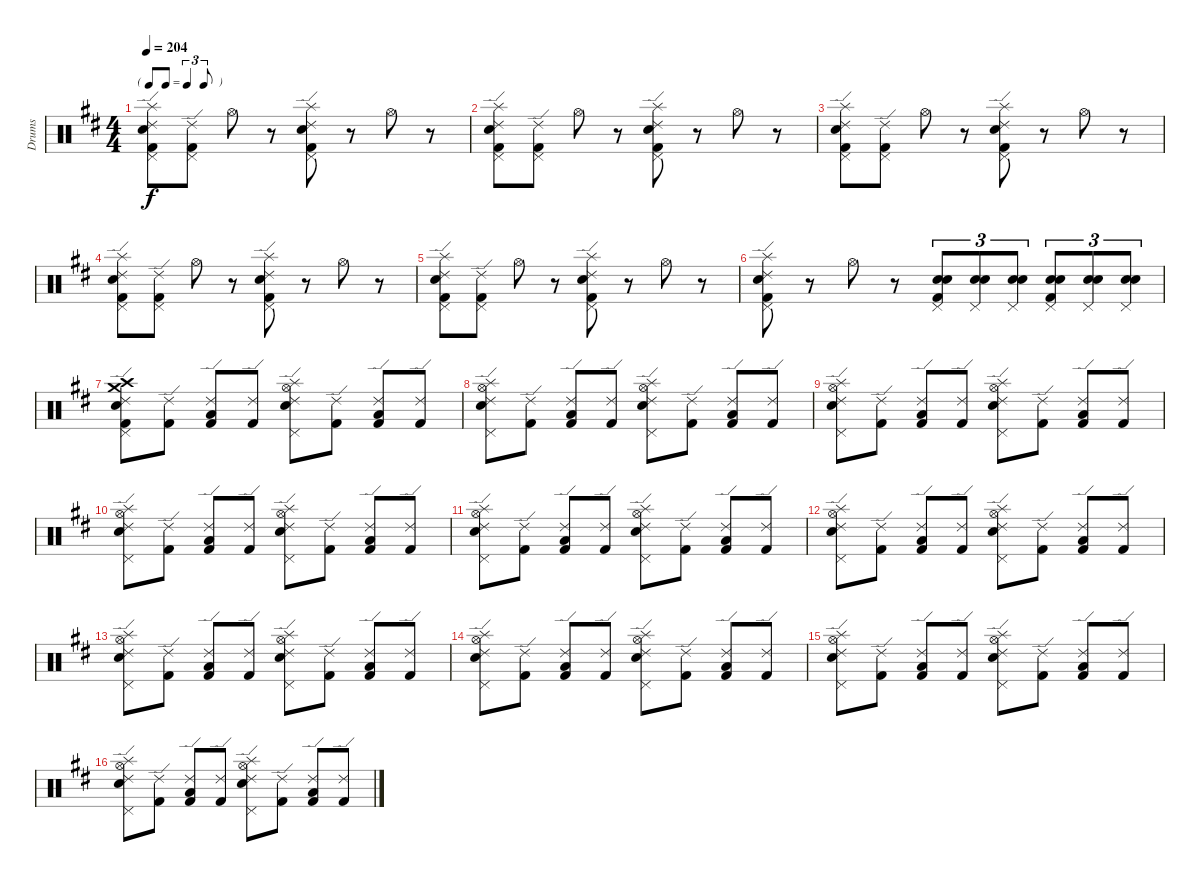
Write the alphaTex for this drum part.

\track ("Drums" "Drums") {instrument percussion}
\staff {score}
\articulation defaults
\ts (4 4)
\tf triplet8th
\tempo 204
\clef neutral
\ks d
("Splash (hit)" "Kick (hit) 2" "Snare (hit) 2" "Ride (edge) 2" "Pedal Hi-Hat (hit)").8{dy f} ("Pedal Hi-Hat (hit)" "Kick (hit) 2" "Ride (edge) 2").8 "Hi-Hat (open)".8 r.8 ("Splash (hit)" "Kick (hit) 2" "Snare (hit) 2" "Ride (edge) 2" "Pedal Hi-Hat (hit)").8 r.8 "Hi-Hat (open)".8 r.8 |
("Splash (hit)" "Kick (hit) 2" "Snare (hit) 2" "Ride (edge) 2" "Pedal Hi-Hat (hit)").8 ("Pedal Hi-Hat (hit)" "Kick (hit) 2" "Ride (edge) 2").8 "Hi-Hat (open)".8 r.8 ("Splash (hit)" "Kick (hit) 2" "Snare (hit) 2" "Ride (edge) 2" "Pedal Hi-Hat (hit)").8 r.8 "Hi-Hat (open)".8 r.8 |
("Splash (hit)" "Kick (hit) 2" "Snare (hit) 2" "Ride (edge) 2" "Pedal Hi-Hat (hit)").8 ("Pedal Hi-Hat (hit)" "Kick (hit) 2" "Ride (edge) 2").8 "Hi-Hat (open)".8 r.8 ("Splash (hit)" "Kick (hit) 2" "Snare (hit) 2" "Ride (edge) 2" "Pedal Hi-Hat (hit)").8 r.8 "Hi-Hat (open)".8 r.8 |
("Splash (hit)" "Kick (hit) 2" "Snare (hit) 2" "Ride (edge) 2" "Pedal Hi-Hat (hit)").8 ("Pedal Hi-Hat (hit)" "Kick (hit) 2" "Ride (edge) 2").8 "Hi-Hat (open)".8 r.8 ("Splash (hit)" "Kick (hit) 2" "Snare (hit) 2" "Ride (edge) 2" "Pedal Hi-Hat (hit)").8 r.8 "Hi-Hat (open)".8 r.8 |
("Splash (hit)" "Kick (hit) 2" "Snare (hit) 2" "Ride (edge) 2" "Pedal Hi-Hat (hit)").8 ("Pedal Hi-Hat (hit)" "Kick (hit) 2" "Ride (edge) 2").8 "Hi-Hat (open)".8 r.8 ("Splash (hit)" "Kick (hit) 2" "Snare (hit) 2" "Ride (edge) 2" "Pedal Hi-Hat (hit)").8 r.8 "Hi-Hat (open)".8 r.8 |
("Splash (hit)" "Kick (hit) 2" "Snare (hit) 2" "Ride (edge) 2" "Pedal Hi-Hat (hit)").8 r.8 "Hi-Hat (open)".8 r.8 ("Kick (hit) 2" "Snare (hit) 2" "Snare (hit) 2" "Pedal Hi-Hat (hit)").8{tu (3 2)} ("Snare (hit) 2" "Snare (hit) 2" "Pedal Hi-Hat (hit)").8{tu (3 2)} ("Snare (hit) 2" "Snare (hit) 2" "Pedal Hi-Hat (hit)").8{tu (3 2)} ("Kick (hit) 2" "Snare (hit) 2" "Snare (hit) 2" "Pedal Hi-Hat (hit)").8{tu (3 2)} ("Pedal Hi-Hat (hit)" "Snare (hit) 2" "Snare (hit) 2").8{tu (3 2)} ("Snare (hit) 2" "Snare (hit) 2" "Pedal Hi-Hat (hit)").8{tu (3 2)} |
("Ride (edge) 2" "Crash medium (hit)" "Crash high (hit)" "Snare (hit) 2" "Kick (hit) 2" "Pedal Hi-Hat (hit)").8 ("Kick (hit) 2" "Ride (edge) 2").8 ("Low Floor Tom (hit)" "Ride (edge) 2" "Kick (hit) 2").8 ("Kick (hit) 2" "Ride (edge) 2").8 ("Hi-Hat (open)" "Splash (hit)" "Snare (hit) 2" "Ride (edge) 2" "Pedal Hi-Hat (hit)").8 ("Kick (hit) 2" "Ride (edge) 2").8 ("Low Floor Tom (hit)" "Ride (edge) 2" "Kick (hit) 2").8 ("Kick (hit) 2" "Ride (edge) 2").8 |
("Hi-Hat (open)" "Splash (hit)" "Snare (hit) 2" "Ride (edge) 2" "Pedal Hi-Hat (hit)").8 ("Kick (hit) 2" "Ride (edge) 2").8 ("Low Floor Tom (hit)" "Ride (edge) 2" "Kick (hit) 2").8 ("Kick (hit) 2" "Ride (edge) 2").8 ("Hi-Hat (open)" "Splash (hit)" "Snare (hit) 2" "Ride (edge) 2" "Pedal Hi-Hat (hit)").8 ("Kick (hit) 2" "Ride (edge) 2").8 ("Low Floor Tom (hit)" "Ride (edge) 2" "Kick (hit) 2").8 ("Kick (hit) 2" "Ride (edge) 2").8 |
("Hi-Hat (open)" "Splash (hit)" "Snare (hit) 2" "Ride (edge) 2" "Pedal Hi-Hat (hit)").8 ("Kick (hit) 2" "Ride (edge) 2").8 ("Low Floor Tom (hit)" "Ride (edge) 2" "Kick (hit) 2").8 ("Kick (hit) 2" "Ride (edge) 2").8 ("Hi-Hat (open)" "Splash (hit)" "Snare (hit) 2" "Ride (edge) 2" "Pedal Hi-Hat (hit)").8 ("Kick (hit) 2" "Ride (edge) 2").8 ("Low Floor Tom (hit)" "Ride (edge) 2" "Kick (hit) 2").8 ("Kick (hit) 2" "Ride (edge) 2").8 |
("Hi-Hat (open)" "Splash (hit)" "Snare (hit) 2" "Ride (edge) 2" "Pedal Hi-Hat (hit)").8 ("Kick (hit) 2" "Ride (edge) 2").8 ("Low Floor Tom (hit)" "Ride (edge) 2" "Kick (hit) 2").8 ("Kick (hit) 2" "Ride (edge) 2").8 ("Hi-Hat (open)" "Splash (hit)" "Snare (hit) 2" "Ride (edge) 2" "Pedal Hi-Hat (hit)").8 ("Kick (hit) 2" "Ride (edge) 2").8 ("Low Floor Tom (hit)" "Ride (edge) 2" "Kick (hit) 2").8 ("Kick (hit) 2" "Ride (edge) 2").8 |
("Hi-Hat (open)" "Splash (hit)" "Snare (hit) 2" "Ride (edge) 2" "Pedal Hi-Hat (hit)").8 ("Kick (hit) 2" "Ride (edge) 2").8 ("Low Floor Tom (hit)" "Ride (edge) 2" "Kick (hit) 2").8 ("Kick (hit) 2" "Ride (edge) 2").8 ("Hi-Hat (open)" "Splash (hit)" "Snare (hit) 2" "Ride (edge) 2" "Pedal Hi-Hat (hit)").8 ("Kick (hit) 2" "Ride (edge) 2").8 ("Low Floor Tom (hit)" "Ride (edge) 2" "Kick (hit) 2").8 ("Kick (hit) 2" "Ride (edge) 2").8 |
("Hi-Hat (open)" "Splash (hit)" "Snare (hit) 2" "Ride (edge) 2" "Pedal Hi-Hat (hit)").8 ("Kick (hit) 2" "Ride (edge) 2").8 ("Low Floor Tom (hit)" "Ride (edge) 2" "Kick (hit) 2").8 ("Kick (hit) 2" "Ride (edge) 2").8 ("Hi-Hat (open)" "Splash (hit)" "Snare (hit) 2" "Ride (edge) 2" "Pedal Hi-Hat (hit)").8 ("Kick (hit) 2" "Ride (edge) 2").8 ("Low Floor Tom (hit)" "Ride (edge) 2" "Kick (hit) 2").8 ("Kick (hit) 2" "Ride (edge) 2").8 |
("Hi-Hat (open)" "Splash (hit)" "Snare (hit) 2" "Ride (edge) 2" "Pedal Hi-Hat (hit)").8 ("Kick (hit) 2" "Ride (edge) 2").8 ("Low Floor Tom (hit)" "Ride (edge) 2" "Kick (hit) 2").8 ("Kick (hit) 2" "Ride (edge) 2").8 ("Hi-Hat (open)" "Splash (hit)" "Snare (hit) 2" "Ride (edge) 2" "Pedal Hi-Hat (hit)").8 ("Kick (hit) 2" "Ride (edge) 2").8 ("Low Floor Tom (hit)" "Ride (edge) 2" "Kick (hit) 2").8 ("Kick (hit) 2" "Ride (edge) 2").8 |
("Hi-Hat (open)" "Splash (hit)" "Snare (hit) 2" "Ride (edge) 2" "Pedal Hi-Hat (hit)").8 ("Kick (hit) 2" "Ride (edge) 2").8 ("Low Floor Tom (hit)" "Ride (edge) 2" "Kick (hit) 2").8 ("Kick (hit) 2" "Ride (edge) 2").8 ("Hi-Hat (open)" "Splash (hit)" "Snare (hit) 2" "Ride (edge) 2" "Pedal Hi-Hat (hit)").8 ("Kick (hit) 2" "Ride (edge) 2").8 ("Low Floor Tom (hit)" "Ride (edge) 2" "Kick (hit) 2").8 ("Kick (hit) 2" "Ride (edge) 2").8 |
("Hi-Hat (open)" "Splash (hit)" "Snare (hit) 2" "Ride (edge) 2" "Pedal Hi-Hat (hit)").8 ("Kick (hit) 2" "Ride (edge) 2").8 ("Low Floor Tom (hit)" "Ride (edge) 2" "Kick (hit) 2").8 ("Kick (hit) 2" "Ride (edge) 2").8 ("Hi-Hat (open)" "Splash (hit)" "Snare (hit) 2" "Ride (edge) 2" "Pedal Hi-Hat (hit)").8 ("Kick (hit) 2" "Ride (edge) 2").8 ("Low Floor Tom (hit)" "Ride (edge) 2" "Kick (hit) 2").8 ("Kick (hit) 2" "Ride (edge) 2").8 |
("Hi-Hat (open)" "Splash (hit)" "Snare (hit) 2" "Ride (edge) 2" "Pedal Hi-Hat (hit)").8 ("Kick (hit) 2" "Ride (edge) 2").8 ("Low Floor Tom (hit)" "Ride (edge) 2" "Kick (hit) 2").8 ("Kick (hit) 2" "Ride (edge) 2").8 ("Hi-Hat (open)" "Splash (hit)" "Snare (hit) 2" "Ride (edge) 2" "Pedal Hi-Hat (hit)").8 ("Kick (hit) 2" "Ride (edge) 2").8 ("Low Floor Tom (hit)" "Ride (edge) 2" "Kick (hit) 2").8 ("Kick (hit) 2" "Ride (edge) 2").8
